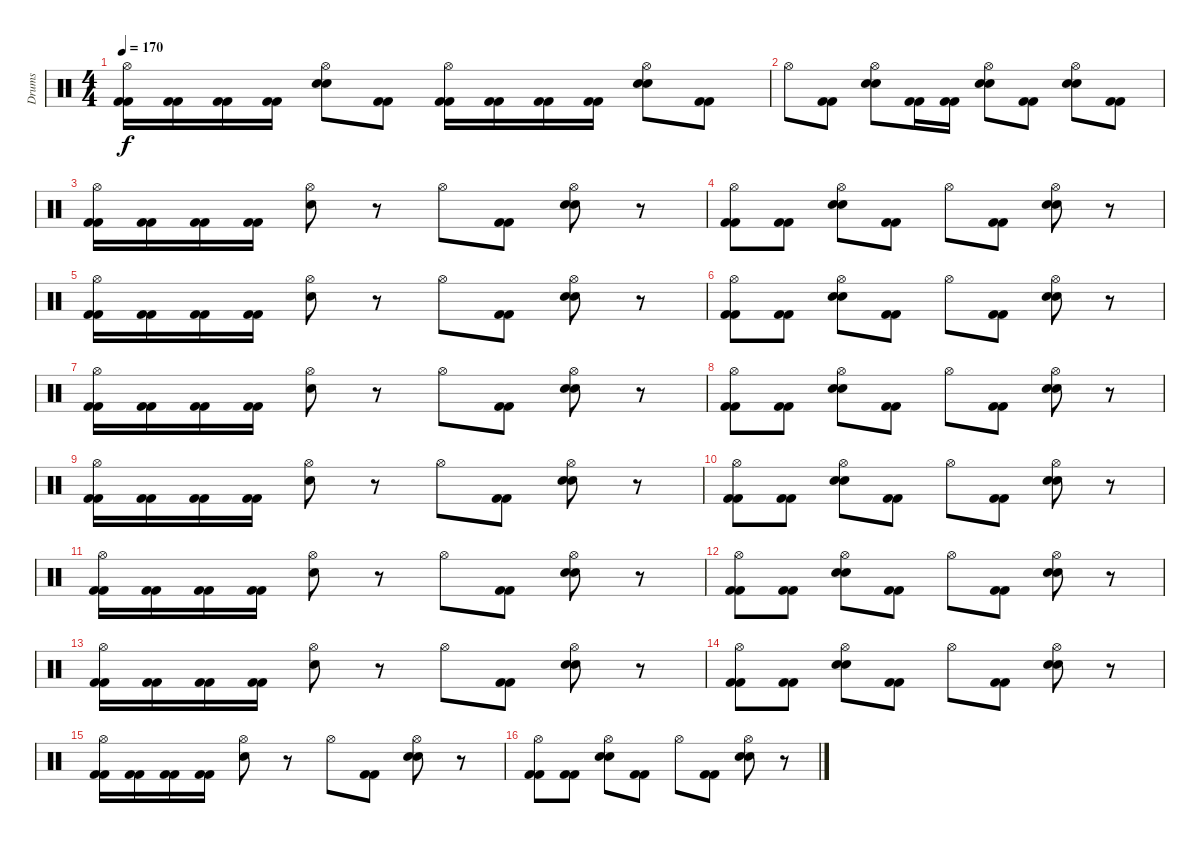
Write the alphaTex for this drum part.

\track ("Drums" "Drums") {instrument percussion}
\staff {score}
\articulation defaults
\ts (4 4)
\tempo 170
\clef neutral
\ks c
("Hi-Hat (open)" "Kick (hit) 2" "Kick (hit) 2").16{dy f} ("Kick (hit) 2" "Kick (hit) 2").16 ("Kick (hit) 2" "Kick (hit) 2").16 ("Kick (hit) 2" "Kick (hit) 2").16 ("Hi-Hat (open)" "Electric Snare (hit)" "Electric Snare (hit)").8 ("Kick (hit) 2" "Kick (hit) 2").8 ("Hi-Hat (open)" "Kick (hit) 2" "Kick (hit) 2").16 ("Kick (hit) 2" "Kick (hit) 2").16 ("Kick (hit) 2" "Kick (hit) 2").16 ("Kick (hit) 2" "Kick (hit) 2").16 ("Hi-Hat (open)" "Electric Snare (hit)" "Electric Snare (hit)").8 ("Kick (hit) 2" "Kick (hit) 2").8 |
"Hi-Hat (open)".8 ("Kick (hit) 2" "Kick (hit) 2").8 ("Hi-Hat (open)" "Electric Snare (hit)" "Electric Snare (hit)").8 ("Kick (hit) 2" "Kick (hit) 2").16 ("Kick (hit) 2" "Kick (hit) 2").16 ("Hi-Hat (open)" "Electric Snare (hit)" "Electric Snare (hit)").8 ("Kick (hit) 2" "Kick (hit) 2").8 ("Hi-Hat (open)" "Electric Snare (hit)" "Electric Snare (hit)").8 ("Kick (hit) 2" "Kick (hit) 2").8 |
("Hi-Hat (open)" "Kick (hit) 2" "Kick (hit) 2").16 ("Kick (hit) 2" "Kick (hit) 2").16 ("Kick (hit) 2" "Kick (hit) 2").16 ("Kick (hit) 2" "Kick (hit) 2").16 ("Hi-Hat (open)" "Electric Snare (hit)").8 r.8 "Hi-Hat (open)".8 ("Kick (hit) 2" "Kick (hit) 2").8 ("Hi-Hat (open)" "Electric Snare (hit)" "Electric Snare (hit)").8 r.8 |
("Hi-Hat (open)" "Kick (hit) 2" "Kick (hit) 2").8 ("Kick (hit) 2" "Kick (hit) 2").8 ("Hi-Hat (open)" "Electric Snare (hit)" "Electric Snare (hit)").8 ("Kick (hit) 2" "Kick (hit) 2").8 "Hi-Hat (open)".8 ("Kick (hit) 2" "Kick (hit) 2").8 ("Hi-Hat (open)" "Electric Snare (hit)" "Electric Snare (hit)").8 r.8 |
("Hi-Hat (open)" "Kick (hit) 2" "Kick (hit) 2").16 ("Kick (hit) 2" "Kick (hit) 2").16 ("Kick (hit) 2" "Kick (hit) 2").16 ("Kick (hit) 2" "Kick (hit) 2").16 ("Hi-Hat (open)" "Electric Snare (hit)").8 r.8 "Hi-Hat (open)".8 ("Kick (hit) 2" "Kick (hit) 2").8 ("Hi-Hat (open)" "Electric Snare (hit)" "Electric Snare (hit)").8 r.8 |
("Hi-Hat (open)" "Kick (hit) 2" "Kick (hit) 2").8 ("Kick (hit) 2" "Kick (hit) 2").8 ("Hi-Hat (open)" "Electric Snare (hit)" "Electric Snare (hit)").8 ("Kick (hit) 2" "Kick (hit) 2").8 "Hi-Hat (open)".8 ("Kick (hit) 2" "Kick (hit) 2").8 ("Hi-Hat (open)" "Electric Snare (hit)" "Electric Snare (hit)").8 r.8 |
("Hi-Hat (open)" "Kick (hit) 2" "Kick (hit) 2").16 ("Kick (hit) 2" "Kick (hit) 2").16 ("Kick (hit) 2" "Kick (hit) 2").16 ("Kick (hit) 2" "Kick (hit) 2").16 ("Hi-Hat (open)" "Electric Snare (hit)").8 r.8 "Hi-Hat (open)".8 ("Kick (hit) 2" "Kick (hit) 2").8 ("Hi-Hat (open)" "Electric Snare (hit)" "Electric Snare (hit)").8 r.8 |
("Hi-Hat (open)" "Kick (hit) 2" "Kick (hit) 2").8 ("Kick (hit) 2" "Kick (hit) 2").8 ("Hi-Hat (open)" "Electric Snare (hit)" "Electric Snare (hit)").8 ("Kick (hit) 2" "Kick (hit) 2").8 "Hi-Hat (open)".8 ("Kick (hit) 2" "Kick (hit) 2").8 ("Hi-Hat (open)" "Electric Snare (hit)" "Electric Snare (hit)").8 r.8 |
("Hi-Hat (open)" "Kick (hit) 2" "Kick (hit) 2").16 ("Kick (hit) 2" "Kick (hit) 2").16 ("Kick (hit) 2" "Kick (hit) 2").16 ("Kick (hit) 2" "Kick (hit) 2").16 ("Hi-Hat (open)" "Electric Snare (hit)").8 r.8 "Hi-Hat (open)".8 ("Kick (hit) 2" "Kick (hit) 2").8 ("Hi-Hat (open)" "Electric Snare (hit)" "Electric Snare (hit)").8 r.8 |
("Hi-Hat (open)" "Kick (hit) 2" "Kick (hit) 2").8 ("Kick (hit) 2" "Kick (hit) 2").8 ("Hi-Hat (open)" "Electric Snare (hit)" "Electric Snare (hit)").8 ("Kick (hit) 2" "Kick (hit) 2").8 "Hi-Hat (open)".8 ("Kick (hit) 2" "Kick (hit) 2").8 ("Hi-Hat (open)" "Electric Snare (hit)" "Electric Snare (hit)").8 r.8 |
("Hi-Hat (open)" "Kick (hit) 2" "Kick (hit) 2").16 ("Kick (hit) 2" "Kick (hit) 2").16 ("Kick (hit) 2" "Kick (hit) 2").16 ("Kick (hit) 2" "Kick (hit) 2").16 ("Hi-Hat (open)" "Electric Snare (hit)").8 r.8 "Hi-Hat (open)".8 ("Kick (hit) 2" "Kick (hit) 2").8 ("Hi-Hat (open)" "Electric Snare (hit)" "Electric Snare (hit)").8 r.8 |
("Hi-Hat (open)" "Kick (hit) 2" "Kick (hit) 2").8 ("Kick (hit) 2" "Kick (hit) 2").8 ("Hi-Hat (open)" "Electric Snare (hit)" "Electric Snare (hit)").8 ("Kick (hit) 2" "Kick (hit) 2").8 "Hi-Hat (open)".8 ("Kick (hit) 2" "Kick (hit) 2").8 ("Hi-Hat (open)" "Electric Snare (hit)" "Electric Snare (hit)").8 r.8 |
("Hi-Hat (open)" "Kick (hit) 2" "Kick (hit) 2").16 ("Kick (hit) 2" "Kick (hit) 2").16 ("Kick (hit) 2" "Kick (hit) 2").16 ("Kick (hit) 2" "Kick (hit) 2").16 ("Hi-Hat (open)" "Electric Snare (hit)").8 r.8 "Hi-Hat (open)".8 ("Kick (hit) 2" "Kick (hit) 2").8 ("Hi-Hat (open)" "Electric Snare (hit)" "Electric Snare (hit)").8 r.8 |
("Hi-Hat (open)" "Kick (hit) 2" "Kick (hit) 2").8 ("Kick (hit) 2" "Kick (hit) 2").8 ("Hi-Hat (open)" "Electric Snare (hit)" "Electric Snare (hit)").8 ("Kick (hit) 2" "Kick (hit) 2").8 "Hi-Hat (open)".8 ("Kick (hit) 2" "Kick (hit) 2").8 ("Hi-Hat (open)" "Electric Snare (hit)" "Electric Snare (hit)").8 r.8 |
("Hi-Hat (open)" "Kick (hit) 2" "Kick (hit) 2").16 ("Kick (hit) 2" "Kick (hit) 2").16 ("Kick (hit) 2" "Kick (hit) 2").16 ("Kick (hit) 2" "Kick (hit) 2").16 ("Hi-Hat (open)" "Electric Snare (hit)").8 r.8 "Hi-Hat (open)".8 ("Kick (hit) 2" "Kick (hit) 2").8 ("Hi-Hat (open)" "Electric Snare (hit)" "Electric Snare (hit)").8 r.8 |
("Hi-Hat (open)" "Kick (hit) 2" "Kick (hit) 2").8 ("Kick (hit) 2" "Kick (hit) 2").8 ("Hi-Hat (open)" "Electric Snare (hit)" "Electric Snare (hit)").8 ("Kick (hit) 2" "Kick (hit) 2").8 "Hi-Hat (open)".8 ("Kick (hit) 2" "Kick (hit) 2").8 ("Hi-Hat (open)" "Electric Snare (hit)" "Electric Snare (hit)").8 r.8
